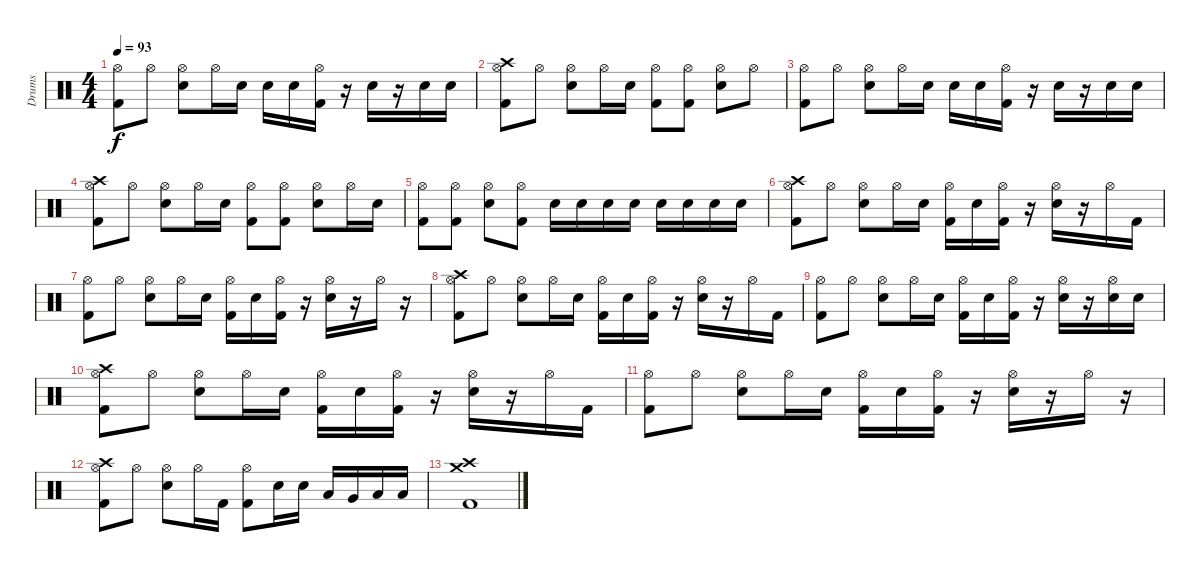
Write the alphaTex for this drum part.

\track ("Drums" "Drums") {instrument percussion}
\staff {score}
\articulation defaults
\ts (4 4)
\tempo 93
\clef neutral
\ks c
("Hi-Hat (open)" "Kick (hit) 2").8{dy f} "Hi-Hat (open)".8 ("Hi-Hat (open)" "Electric Snare (hit)").8 "Hi-Hat (open)".16 "Electric Snare (hit)".16 "Electric Snare (hit)".16 "Electric Snare (hit)".16 ("Hi-Hat (open)" "Kick (hit) 2").16 r.16 "Electric Snare (hit)".16 r.16 "Electric Snare (hit)".16 "Electric Snare (hit)".16 |
("Crash high (hit)" "Hi-Hat (open)" "Kick (hit) 2").8 "Hi-Hat (open)".8 ("Hi-Hat (open)" "Electric Snare (hit)").8 "Hi-Hat (open)".16 "Electric Snare (hit)".16 ("Hi-Hat (open)" "Kick (hit) 2").8 ("Hi-Hat (open)" "Kick (hit) 2").8 ("Hi-Hat (open)" "Electric Snare (hit)").8 "Hi-Hat (open)".8 |
("Hi-Hat (open)" "Kick (hit) 2").8 "Hi-Hat (open)".8 ("Hi-Hat (open)" "Electric Snare (hit)").8 "Hi-Hat (open)".16 "Electric Snare (hit)".16 "Electric Snare (hit)".16 "Electric Snare (hit)".16 ("Hi-Hat (open)" "Kick (hit) 2").16 r.16 "Electric Snare (hit)".16 r.16 "Electric Snare (hit)".16 "Electric Snare (hit)".16 |
("Crash high (hit)" "Hi-Hat (open)" "Kick (hit) 2").8 "Hi-Hat (open)".8 ("Hi-Hat (open)" "Electric Snare (hit)").8 "Hi-Hat (open)".16 "Electric Snare (hit)".16 ("Hi-Hat (open)" "Kick (hit) 2").8 ("Hi-Hat (open)" "Kick (hit) 2").8 ("Hi-Hat (open)" "Electric Snare (hit)").8 "Hi-Hat (open)".16 "Electric Snare (hit)".16 |
("Hi-Hat (open)" "Kick (hit) 2").8 ("Hi-Hat (open)" "Kick (hit) 2").8 ("Hi-Hat (open)" "Electric Snare (hit)").8 ("Hi-Hat (open)" "Kick (hit) 2").8 "Electric Snare (hit)".16 "Electric Snare (hit)".16 "Electric Snare (hit)".16 "Electric Snare (hit)".16 "Electric Snare (hit)".16 "Electric Snare (hit)".16 "Electric Snare (hit)".16 "Electric Snare (hit)".16 |
("Crash high (hit)" "Hi-Hat (open)" "Kick (hit) 2").8 "Hi-Hat (open)".8 ("Hi-Hat (open)" "Electric Snare (hit)").8 "Hi-Hat (open)".16 "Electric Snare (hit)".16 ("Hi-Hat (open)" "Kick (hit) 2").16 "Electric Snare (hit)".16 ("Hi-Hat (open)" "Kick (hit) 2").16 r.16 ("Hi-Hat (open)" "Electric Snare (hit)").16 r.16 "Hi-Hat (open)".16 "Kick (hit) 2".16 |
("Hi-Hat (open)" "Kick (hit) 2").8 "Hi-Hat (open)".8 ("Hi-Hat (open)" "Electric Snare (hit)").8 "Hi-Hat (open)".16 "Electric Snare (hit)".16 ("Hi-Hat (open)" "Kick (hit) 2").16 "Electric Snare (hit)".16 ("Hi-Hat (open)" "Kick (hit) 2").16 r.16 ("Hi-Hat (open)" "Electric Snare (hit)").16 r.16 "Hi-Hat (open)".16 r.16 |
("Crash high (hit)" "Hi-Hat (open)" "Kick (hit) 2").8 "Hi-Hat (open)".8 ("Hi-Hat (open)" "Electric Snare (hit)").8 "Hi-Hat (open)".16 "Electric Snare (hit)".16 ("Hi-Hat (open)" "Kick (hit) 2").16 "Electric Snare (hit)".16 ("Hi-Hat (open)" "Kick (hit) 2").16 r.16 ("Hi-Hat (open)" "Electric Snare (hit)").16 r.16 "Hi-Hat (open)".16 "Kick (hit) 2".16 |
("Hi-Hat (open)" "Kick (hit) 2").8 "Hi-Hat (open)".8 ("Hi-Hat (open)" "Electric Snare (hit)").8 "Hi-Hat (open)".16 "Electric Snare (hit)".16 ("Hi-Hat (open)" "Kick (hit) 2").16 "Electric Snare (hit)".16 ("Hi-Hat (open)" "Kick (hit) 2").16 r.16 ("Hi-Hat (open)" "Electric Snare (hit)").16 r.16 ("Hi-Hat (open)" "Electric Snare (hit)").16 "Electric Snare (hit)".16 |
("Crash high (hit)" "Hi-Hat (open)" "Kick (hit) 2").8 "Hi-Hat (open)".8 ("Hi-Hat (open)" "Electric Snare (hit)").8 "Hi-Hat (open)".16 "Electric Snare (hit)".16 ("Hi-Hat (open)" "Kick (hit) 2").16 "Electric Snare (hit)".16 ("Hi-Hat (open)" "Kick (hit) 2").16 r.16 ("Hi-Hat (open)" "Electric Snare (hit)").16 r.16 "Hi-Hat (open)".16 "Kick (hit) 2".16 |
("Hi-Hat (open)" "Kick (hit) 2").8 "Hi-Hat (open)".8 ("Hi-Hat (open)" "Electric Snare (hit)").8 "Hi-Hat (open)".16 "Electric Snare (hit)".16 ("Hi-Hat (open)" "Kick (hit) 2").16 "Electric Snare (hit)".16 ("Hi-Hat (open)" "Kick (hit) 2").16 r.16 ("Hi-Hat (open)" "Electric Snare (hit)").16 r.16 "Hi-Hat (open)".16 r.16 |
("Crash high (hit)" "Hi-Hat (open)" "Kick (hit) 2").8 "Hi-Hat (open)".8 ("Hi-Hat (open)" "Electric Snare (hit)").8 "Hi-Hat (open)".16 "Kick (hit) 2".16 ("Hi-Hat (open)" "Kick (hit) 2").8 "Electric Snare (hit)".16 "Electric Snare (hit)".16 "Low Tom (hit)".16 "Very Low Tom (hit)".16 "Low Floor Tom (hit)".16 "Low Floor Tom (hit)".16 |
("Crash medium (hit)" "Crash high (hit)" "Kick (hit) 2").1
